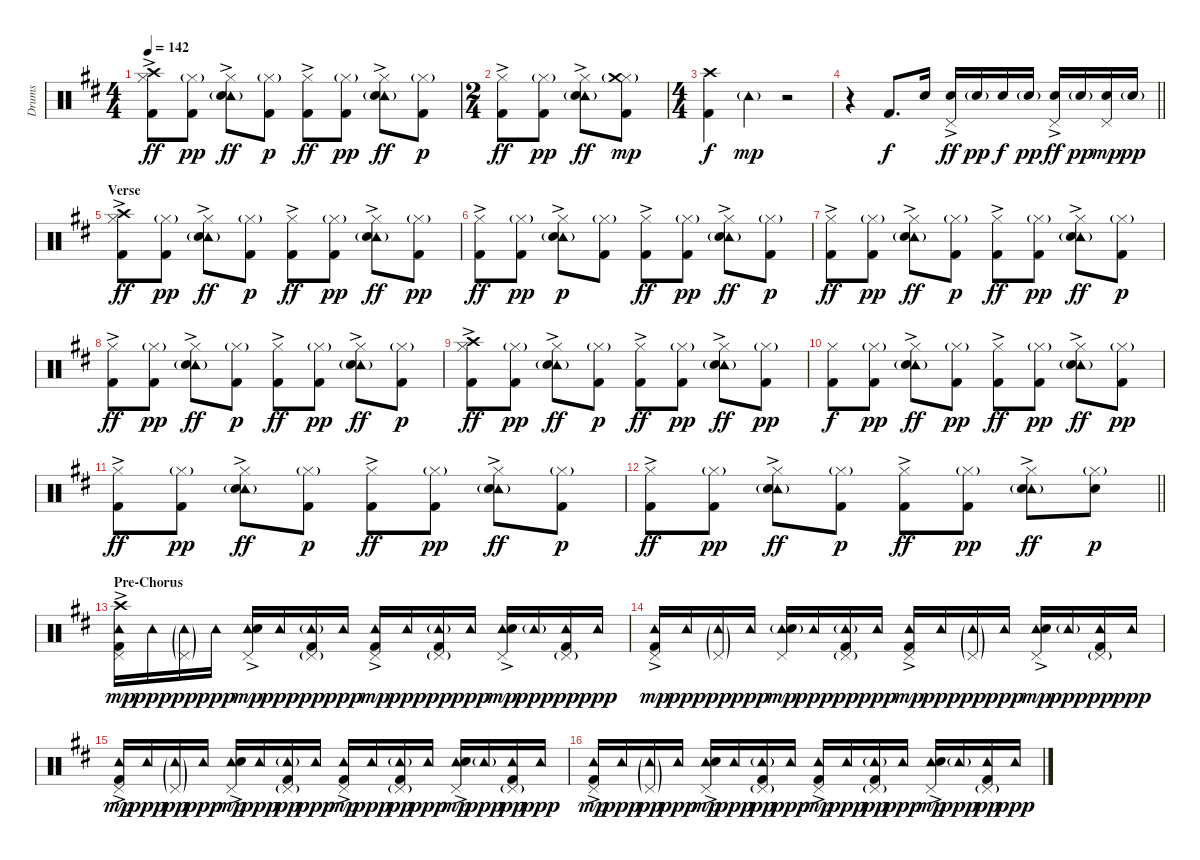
\track ("Drums" "Drums") {instrument percussion}
\staff {score}
\articulation defaults
\ts (4 4)
\tempo 142
\clef neutral
\ks d
("Hi-Hat (closed)" "Crash high (hit)" "Kick (hit) 2"{ac}).8{dy ff} ("Hi-Hat (closed)"{g} "Kick (hit) 2").8{dy pp} ("Hi-Hat (closed)" "Tambourine (hit)"{g} "Snare (hit) 2"{ac}).8{dy ff} ("Hi-Hat (closed)"{g} "Kick (hit) 2").8{dy p} ("Hi-Hat (closed)" "Kick (hit) 2"{ac}).8{dy ff} ("Hi-Hat (closed)"{g} "Kick (hit) 2").8{dy pp} ("Hi-Hat (closed)" "Tambourine (hit)"{g} "Snare (hit) 2"{ac}).8{dy ff} ("Hi-Hat (closed)"{g} "Kick (hit) 2").8{dy p} |
\ts (2 4)
("Hi-Hat (closed)" "Kick (hit) 2"{ac}).8{dy ff} ("Hi-Hat (closed)"{g} "Kick (hit) 2").8{dy pp} ("Hi-Hat (closed)" "Tambourine (hit)"{g} "Snare (hit) 2"{ac}).8{dy ff} ("Hi-Hat (closed)"{g} "Crash medium (hit)"{g} "Kick (hit) 2").8{dy mp} |
\ts (4 4)
("Crash high (hit)" "Kick (hit) 2").4{dy f} "Tambourine (hit)"{g}.4{dy mp} r.2 |
\barLineRight lightlight
r.4 "Kick (hit) 2".8{d dy f} "Snare (hit) 2".16 ("Pedal Hi-Hat (hit)" "Snare (hit) 2"{ac}).16{dy ff} "Snare (hit) 2"{g}.16{dy pp} "Snare (hit) 2".16{dy f} "Snare (hit) 2"{g}.16{dy pp} ("Pedal Hi-Hat (hit)" "Snare (hit) 2"{ac}).16{dy ff} "Snare (hit) 2"{g}.16{dy pp} ("Pedal Hi-Hat (hit)" "Snare (hit) 2").16{dy mp} "Snare (hit) 2"{g}.16{dy pp} |
\section ("" "Verse")
("Hi-Hat (closed)" "Crash high (hit)" "Kick (hit) 2"{ac}).8{dy ff} ("Hi-Hat (closed)"{g} "Kick (hit) 2").8{dy pp} ("Hi-Hat (closed)" "Tambourine (hit)"{g} "Snare (hit) 2"{ac}).8{dy ff} ("Hi-Hat (closed)"{g} "Kick (hit) 2").8{dy p} ("Hi-Hat (closed)" "Kick (hit) 2"{ac}).8{dy ff} ("Hi-Hat (closed)"{g} "Kick (hit) 2").8{dy pp} ("Hi-Hat (closed)" "Tambourine (hit)"{g} "Snare (hit) 2"{ac}).8{dy ff} ("Hi-Hat (closed)"{g} "Kick (hit) 2").8{dy pp} |
("Hi-Hat (closed)" "Kick (hit) 2"{ac}).8{dy ff} ("Hi-Hat (closed)"{g} "Kick (hit) 2").8{dy pp} ("Hi-Hat (closed)" "Tambourine (hit)"{g} "Snare (hit) 2"{ac}).8{dy p} ("Hi-Hat (closed)"{g} "Kick (hit) 2").8 ("Hi-Hat (closed)" "Kick (hit) 2"{ac}).8{dy ff} ("Hi-Hat (closed)"{g} "Kick (hit) 2").8{dy pp} ("Hi-Hat (closed)" "Tambourine (hit)"{g} "Snare (hit) 2"{ac}).8{dy ff} ("Hi-Hat (closed)"{g} "Kick (hit) 2").8{dy p} |
("Hi-Hat (closed)" "Kick (hit) 2"{ac}).8{dy ff} ("Hi-Hat (closed)"{g} "Kick (hit) 2").8{dy pp} ("Hi-Hat (closed)" "Tambourine (hit)"{g} "Snare (hit) 2"{ac}).8{dy ff} ("Hi-Hat (closed)"{g} "Kick (hit) 2").8{dy p} ("Hi-Hat (closed)" "Kick (hit) 2"{ac}).8{dy ff} ("Hi-Hat (closed)"{g} "Kick (hit) 2").8{dy pp} ("Hi-Hat (closed)" "Tambourine (hit)"{g} "Snare (hit) 2"{ac}).8{dy ff} ("Hi-Hat (closed)"{g} "Kick (hit) 2").8{dy p} |
("Hi-Hat (closed)" "Kick (hit) 2"{ac}).8{dy ff} ("Hi-Hat (closed)"{g} "Kick (hit) 2").8{dy pp} ("Hi-Hat (closed)" "Tambourine (hit)"{g} "Snare (hit) 2"{ac}).8{dy ff} ("Hi-Hat (closed)"{g} "Kick (hit) 2").8{dy p} ("Hi-Hat (closed)" "Kick (hit) 2"{ac}).8{dy ff} ("Hi-Hat (closed)"{g} "Kick (hit) 2").8{dy pp} ("Hi-Hat (closed)" "Tambourine (hit)"{g} "Snare (hit) 2"{ac}).8{dy ff} ("Hi-Hat (closed)"{g} "Kick (hit) 2").8{dy p} |
("Hi-Hat (closed)" "Crash high (hit)" "Kick (hit) 2"{ac}).8{dy ff} ("Hi-Hat (closed)"{g} "Kick (hit) 2").8{dy pp} ("Hi-Hat (closed)" "Tambourine (hit)"{g} "Snare (hit) 2"{ac}).8{dy ff} ("Hi-Hat (closed)"{g} "Kick (hit) 2").8{dy p} ("Hi-Hat (closed)" "Kick (hit) 2"{ac}).8{dy ff} ("Hi-Hat (closed)"{g} "Kick (hit) 2").8{dy pp} ("Hi-Hat (closed)" "Tambourine (hit)"{g} "Snare (hit) 2"{ac}).8{dy ff} ("Hi-Hat (closed)"{g} "Kick (hit) 2").8{dy pp} |
("Hi-Hat (closed)" "Kick (hit) 2").8{dy f} ("Hi-Hat (closed)"{g} "Kick (hit) 2").8{dy pp} ("Hi-Hat (closed)" "Tambourine (hit)"{g} "Snare (hit) 2"{ac}).8{dy ff} ("Hi-Hat (closed)"{g} "Kick (hit) 2").8{dy pp} ("Hi-Hat (closed)" "Kick (hit) 2"{ac}).8{dy ff} ("Hi-Hat (closed)"{g} "Kick (hit) 2").8{dy pp} ("Hi-Hat (closed)" "Tambourine (hit)"{g} "Snare (hit) 2"{ac}).8{dy ff} ("Hi-Hat (closed)"{g} "Kick (hit) 2").8{dy pp} |
("Hi-Hat (closed)" "Kick (hit) 2"{ac}).8{dy ff} ("Hi-Hat (closed)"{g} "Kick (hit) 2").8{dy pp} ("Hi-Hat (closed)" "Tambourine (hit)"{g} "Snare (hit) 2"{ac}).8{dy ff} ("Hi-Hat (closed)"{g} "Kick (hit) 2").8{dy p} ("Hi-Hat (closed)" "Kick (hit) 2"{ac}).8{dy ff} ("Hi-Hat (closed)"{g} "Kick (hit) 2").8{dy pp} ("Hi-Hat (closed)" "Tambourine (hit)"{g} "Snare (hit) 2"{ac}).8{dy ff} ("Hi-Hat (closed)"{g} "Kick (hit) 2").8{dy p} |
\barLineRight lightlight
("Hi-Hat (closed)" "Kick (hit) 2"{ac}).8{dy ff} ("Hi-Hat (closed)"{g} "Kick (hit) 2").8{dy pp} ("Hi-Hat (closed)" "Tambourine (hit)"{g} "Snare (hit) 2"{ac}).8{dy ff} ("Hi-Hat (closed)"{g} "Kick (hit) 2").8{dy p} ("Hi-Hat (closed)" "Kick (hit) 2"{ac}).8{dy ff} ("Hi-Hat (closed)"{g} "Kick (hit) 2").8{dy pp} ("Hi-Hat (closed)" "Tambourine (hit)"{g} "Snare (hit) 2"{ac}).8{dy ff} ("Hi-Hat (closed)"{g} "Snare (hit) 2").8{dy p} |
\section ("" "Pre-Chorus")
("Pedal Hi-Hat (hit)" "Tambourine (hit)" "Crash high (hit)" "Kick (hit) 2"{ac}).16{dy mp} "Tambourine (hit)".16{dy ppp} ("Pedal Hi-Hat (hit)"{g} "Tambourine (hit)"{g}).16{dy pp} "Tambourine (hit)".16{dy ppp} ("Pedal Hi-Hat (hit)" "Tambourine (hit)" "Snare (hit) 2"{ac}).16{dy mp} "Tambourine (hit)".16{dy ppp} ("Pedal Hi-Hat (hit)"{g} "Tambourine (hit)"{g} "Kick (hit) 2").16{dy pp} "Tambourine (hit)".16{dy ppp} ("Pedal Hi-Hat (hit)" "Tambourine (hit)" "Kick (hit) 2"{ac}).16{dy mp} "Tambourine (hit)".16{dy ppp} ("Pedal Hi-Hat (hit)"{g} "Tambourine (hit)"{g} "Kick (hit) 2").16{dy pp} "Tambourine (hit)".16{dy ppp} ("Pedal Hi-Hat (hit)" "Tambourine (hit)" "Snare (hit) 2"{ac}).16{dy mp} "Tambourine (hit)"{g}.16{dy ppp} ("Pedal Hi-Hat (hit)"{g} "Tambourine (hit)" "Kick (hit) 2").16{dy pp} "Tambourine (hit)".16{dy ppp} |
("Pedal Hi-Hat (hit)" "Tambourine (hit)" "Kick (hit) 2"{ac}).16{dy mp} "Tambourine (hit)".16{dy ppp} ("Pedal Hi-Hat (hit)"{g} "Tambourine (hit)"{g}).16{dy pp} "Tambourine (hit)".16{dy ppp} ("Pedal Hi-Hat (hit)" "Tambourine (hit)" "Snare (hit) 2"{g}).16{dy mp} "Tambourine (hit)".16{dy ppp} ("Pedal Hi-Hat (hit)"{g} "Tambourine (hit)"{g} "Kick (hit) 2").16{dy pp} "Tambourine (hit)".16{dy ppp} ("Pedal Hi-Hat (hit)" "Tambourine (hit)" "Kick (hit) 2"{ac}).16{dy mp} "Tambourine (hit)".16{dy ppp} ("Pedal Hi-Hat (hit)"{g} "Tambourine (hit)"{g}).16{dy pp} "Tambourine (hit)".16{dy ppp} ("Pedal Hi-Hat (hit)" "Tambourine (hit)" "Snare (hit) 2"{ac}).16{dy mp} "Tambourine (hit)"{g}.16{dy ppp} ("Pedal Hi-Hat (hit)"{g} "Tambourine (hit)" "Kick (hit) 2").16{dy pp} "Tambourine (hit)".16{dy ppp} |
("Pedal Hi-Hat (hit)" "Tambourine (hit)" "Kick (hit) 2"{ac}).16{dy mp} "Tambourine (hit)".16{dy ppp} ("Pedal Hi-Hat (hit)"{g} "Tambourine (hit)"{g}).16{dy pp} "Tambourine (hit)".16{dy ppp} ("Pedal Hi-Hat (hit)" "Tambourine (hit)" "Snare (hit) 2"{ac}).16{dy mp} "Tambourine (hit)".16{dy ppp} ("Pedal Hi-Hat (hit)"{g} "Tambourine (hit)"{g} "Kick (hit) 2").16{dy pp} "Tambourine (hit)".16{dy ppp} ("Pedal Hi-Hat (hit)" "Tambourine (hit)" "Kick (hit) 2"{ac}).16{dy mp} "Tambourine (hit)".16{dy ppp} ("Pedal Hi-Hat (hit)"{g} "Tambourine (hit)"{g} "Kick (hit) 2").16{dy pp} "Tambourine (hit)".16{dy ppp} ("Pedal Hi-Hat (hit)" "Tambourine (hit)" "Snare (hit) 2"{ac}).16{dy mp} "Tambourine (hit)"{g}.16{dy ppp} ("Pedal Hi-Hat (hit)"{g} "Tambourine (hit)" "Kick (hit) 2").16{dy pp} "Tambourine (hit)".16{dy ppp} |
("Pedal Hi-Hat (hit)" "Tambourine (hit)" "Kick (hit) 2"{ac}).16{dy mp} "Tambourine (hit)".16{dy ppp} ("Pedal Hi-Hat (hit)"{g} "Tambourine (hit)"{g}).16{dy pp} "Tambourine (hit)".16{dy ppp} ("Pedal Hi-Hat (hit)" "Tambourine (hit)" "Snare (hit) 2"{ac}).16{dy mp} "Tambourine (hit)".16{dy ppp} ("Pedal Hi-Hat (hit)"{g} "Tambourine (hit)"{g} "Kick (hit) 2").16{dy pp} "Tambourine (hit)".16{dy ppp} ("Pedal Hi-Hat (hit)" "Tambourine (hit)" "Kick (hit) 2"{ac}).16{dy mp} "Tambourine (hit)".16{dy ppp} ("Pedal Hi-Hat (hit)"{g} "Tambourine (hit)"{g} "Kick (hit) 2").16{dy pp} "Tambourine (hit)".16{dy ppp} ("Pedal Hi-Hat (hit)" "Tambourine (hit)" "Snare (hit) 2"{ac}).16{dy mp} "Tambourine (hit)"{g}.16{dy ppp} ("Pedal Hi-Hat (hit)"{g} "Tambourine (hit)" "Kick (hit) 2").16{dy pp} "Tambourine (hit)".16{dy ppp}
